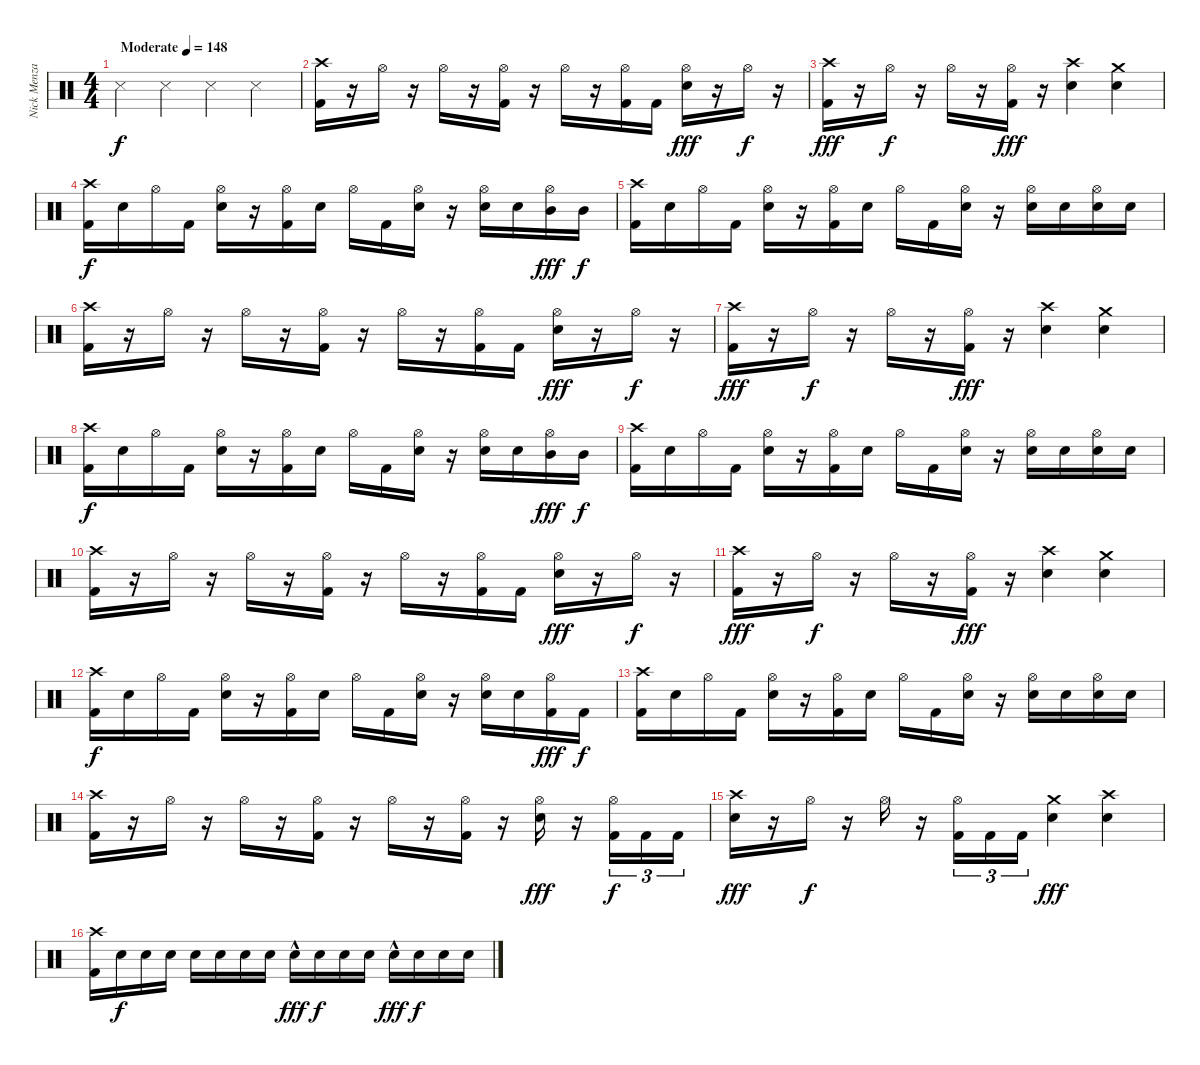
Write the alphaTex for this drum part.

\track ("Nick Menza" "Nick Menza") {instrument percussion}
\staff {score}
\articulation defaults
\ts (4 4)
\tempo (148 "Moderate")
\clef neutral
\ks c "Snare (side stick) 3".4{dy f} "Snare (side stick) 3".4 "Snare (side stick) 3".4 "Snare (side stick) 3".4
|
("Crash high (hit)" "Kick (hit) 2").16 r.16 "Hi-Hat (open)".16 r.16 "Hi-Hat (open)".16 r.16 ("Hi-Hat (open)" "Kick (hit) 2").16 r.16 "Hi-Hat (open)".16 r.16 ("Hi-Hat (open)" "Kick (hit) 2").16 "Kick (hit) 2".16 ("Hi-Hat (open)" "Electric Snare (hit)").16{dy fff} r.16 "Hi-Hat (open)".16{dy f} r.16 |
("Crash high (hit)" "Kick (hit) 2").16{dy fff} r.16 "Hi-Hat (open)".16{dy f} r.16 "Hi-Hat (open)".16 r.16 ("Hi-Hat (open)" "Kick (hit) 2").16{dy fff} r.16 ("Crash high (hit)" "Electric Snare (hit)").4 ("Crash medium (hit)" "Electric Snare (hit)").4 |
("Crash high (hit)" "Kick (hit) 2").16{dy f} "Electric Snare (hit)".16 "Hi-Hat (open)".16 "Kick (hit) 2".16 ("Hi-Hat (open)" "Electric Snare (hit)").16 r.16 ("Hi-Hat (open)" "Kick (hit) 2").16 "Electric Snare (hit)".16 "Hi-Hat (open)".16 "Kick (hit) 2".16 ("Hi-Hat (open)" "Electric Snare (hit)").16 r.16 ("Hi-Hat (open)" "Electric Snare (hit)").16 "Electric Snare (hit)".16 ("Hi-Hat (open)" "Mid Tom (hit)").16{dy fff} "Mid Tom (hit)".16{dy f} |
("Crash high (hit)" "Kick (hit) 2").16 "Electric Snare (hit)".16 "Hi-Hat (open)".16 "Kick (hit) 2".16 ("Hi-Hat (open)" "Electric Snare (hit)").16 r.16 ("Hi-Hat (open)" "Kick (hit) 2").16 "Electric Snare (hit)".16 "Hi-Hat (open)".16 "Kick (hit) 2".16 ("Hi-Hat (open)" "Electric Snare (hit)").16 r.16 ("Hi-Hat (open)" "Electric Snare (hit)").16 "Electric Snare (hit)".16 ("Hi-Hat (open)" "Electric Snare (hit)").16 "Electric Snare (hit)".16 |
("Crash high (hit)" "Kick (hit) 2").16 r.16 "Hi-Hat (open)".16 r.16 "Hi-Hat (open)".16 r.16 ("Hi-Hat (open)" "Kick (hit) 2").16 r.16 "Hi-Hat (open)".16 r.16 ("Hi-Hat (open)" "Kick (hit) 2").16 "Kick (hit) 2".16 ("Hi-Hat (open)" "Electric Snare (hit)").16{dy fff} r.16 "Hi-Hat (open)".16{dy f} r.16 |
("Crash high (hit)" "Kick (hit) 2").16{dy fff} r.16 "Hi-Hat (open)".16{dy f} r.16 "Hi-Hat (open)".16 r.16 ("Hi-Hat (open)" "Kick (hit) 2").16{dy fff} r.16 ("Crash high (hit)" "Electric Snare (hit)").4 ("Crash medium (hit)" "Electric Snare (hit)").4 |
("Crash high (hit)" "Kick (hit) 2").16{dy f} "Electric Snare (hit)".16 "Hi-Hat (open)".16 "Kick (hit) 2".16 ("Hi-Hat (open)" "Electric Snare (hit)").16 r.16 ("Hi-Hat (open)" "Kick (hit) 2").16 "Electric Snare (hit)".16 "Hi-Hat (open)".16 "Kick (hit) 2".16 ("Hi-Hat (open)" "Electric Snare (hit)").16 r.16 ("Hi-Hat (open)" "Electric Snare (hit)").16 "Electric Snare (hit)".16 ("Hi-Hat (open)" "Mid Tom (hit)").16{dy fff} "Mid Tom (hit)".16{dy f} |
("Crash high (hit)" "Kick (hit) 2").16 "Electric Snare (hit)".16 "Hi-Hat (open)".16 "Kick (hit) 2".16 ("Hi-Hat (open)" "Electric Snare (hit)").16 r.16 ("Hi-Hat (open)" "Kick (hit) 2").16 "Electric Snare (hit)".16 "Hi-Hat (open)".16 "Kick (hit) 2".16 ("Hi-Hat (open)" "Electric Snare (hit)").16 r.16 ("Hi-Hat (open)" "Electric Snare (hit)").16 "Electric Snare (hit)".16 ("Hi-Hat (open)" "Electric Snare (hit)").16 "Electric Snare (hit)".16 |
("Crash high (hit)" "Kick (hit) 2").16 r.16 "Hi-Hat (open)".16 r.16 "Hi-Hat (open)".16 r.16 ("Hi-Hat (open)" "Kick (hit) 2").16 r.16 "Hi-Hat (open)".16 r.16 ("Hi-Hat (open)" "Kick (hit) 2").16 "Kick (hit) 2".16 ("Hi-Hat (open)" "Electric Snare (hit)").16{dy fff} r.16 "Hi-Hat (open)".16{dy f} r.16 |
("Crash high (hit)" "Kick (hit) 2").16{dy fff} r.16 "Hi-Hat (open)".16{dy f} r.16 "Hi-Hat (open)".16 r.16 ("Hi-Hat (open)" "Kick (hit) 2").16{dy fff} r.16 ("Crash high (hit)" "Electric Snare (hit)").4 ("Crash medium (hit)" "Electric Snare (hit)").4 |
("Crash high (hit)" "Kick (hit) 2").16{dy f} "Electric Snare (hit)".16 "Hi-Hat (open)".16 "Kick (hit) 2".16 ("Hi-Hat (open)" "Electric Snare (hit)").16 r.16 ("Hi-Hat (open)" "Kick (hit) 2").16 "Electric Snare (hit)".16 "Hi-Hat (open)".16 "Kick (hit) 2".16 ("Hi-Hat (open)" "Electric Snare (hit)").16 r.16 ("Hi-Hat (open)" "Electric Snare (hit)").16 "Electric Snare (hit)".16 ("Hi-Hat (open)" "Kick (hit) 2").16{dy fff} "Kick (hit) 2".16{dy f} |
("Crash high (hit)" "Kick (hit) 2").16 "Electric Snare (hit)".16 "Hi-Hat (open)".16 "Kick (hit) 2".16 ("Hi-Hat (open)" "Electric Snare (hit)").16 r.16 ("Hi-Hat (open)" "Kick (hit) 2").16 "Electric Snare (hit)".16 "Hi-Hat (open)".16 "Kick (hit) 2".16 ("Hi-Hat (open)" "Electric Snare (hit)").16 r.16 ("Hi-Hat (open)" "Electric Snare (hit)").16 "Electric Snare (hit)".16 ("Hi-Hat (open)" "Electric Snare (hit)").16 "Electric Snare (hit)".16 |
("Crash high (hit)" "Kick (hit) 2").16 r.16 "Hi-Hat (open)".16 r.16 "Hi-Hat (open)".16 r.16 ("Hi-Hat (open)" "Kick (hit) 2").16 r.16 "Hi-Hat (open)".16 r.16 ("Hi-Hat (open)" "Kick (hit) 2").16 r.16 ("Hi-Hat (open)" "Electric Snare (hit)").16{dy fff} r.16 ("Hi-Hat (open)" "Kick (hit) 2").16{tu (3 2) dy f} "Kick (hit) 2".16{tu (3 2)} "Kick (hit) 2".16{tu (3 2)} |
("Crash high (hit)" "Electric Snare (hit)").16{dy fff} r.16 "Hi-Hat (open)".16{dy f} r.16 "Hi-Hat (open)".16 r.16 ("Hi-Hat (open)" "Kick (hit) 2").16{tu (3 2)} "Kick (hit) 2".16{tu (3 2)} "Kick (hit) 2".16{tu (3 2)} ("Crash medium (hit)" "Electric Snare (hit)").4{dy fff} ("Crash high (hit)" "Electric Snare (hit)").4 |
("Crash high (hit)" "Kick (hit) 2").16 "Electric Snare (hit)".16{dy f} "Electric Snare (hit)".16 "Electric Snare (hit)".16 "Electric Snare (hit)".16 "Electric Snare (hit)".16 "Electric Snare (hit)".16 "Electric Snare (hit)".16 "Electric Snare (hit)"{hac}.16{dy fff} "Electric Snare (hit)".16{dy f} "Electric Snare (hit)".16 "Electric Snare (hit)".16 "Electric Snare (hit)"{hac}.16{dy fff} "Electric Snare (hit)".16{dy f} "Electric Snare (hit)".16 "Electric Snare (hit)".16
